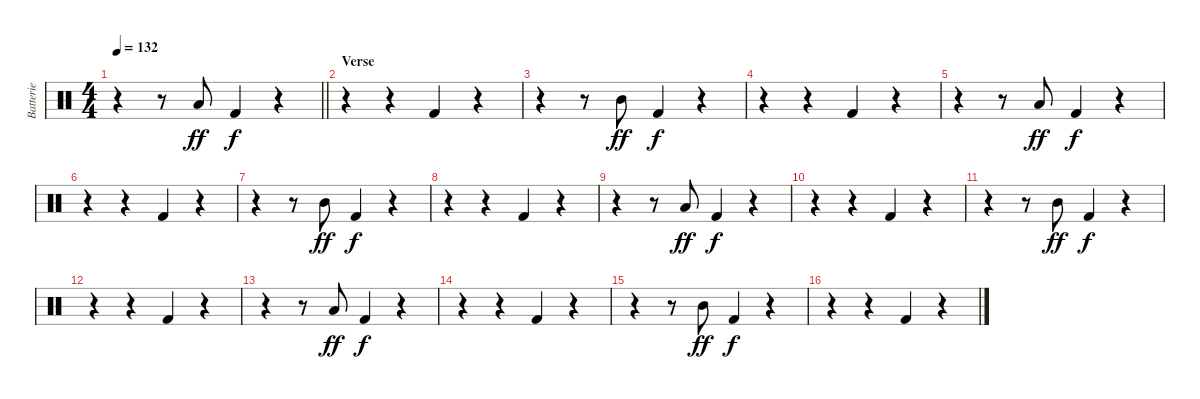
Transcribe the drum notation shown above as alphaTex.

\track ("Batterie" "Batterie") {instrument percussion}
\staff {score}
\articulation defaults
\ts (4 4)
\tempo 132
\clef neutral
\barLineRight lightlight
\ks c
r.4{dy f} r.8 "Low Floor Tom (hit)".8{dy ff} "Kick (hit) 2".4{dy f} r.4 |
\section ("" "Verse")
r.4 r.4 "Kick (hit) 2".4 r.4 |
r.4 r.8 "Mid Tom (hit)".8{dy ff} "Kick (hit) 2".4{dy f} r.4 |
r.4 r.4 "Kick (hit) 2".4 r.4 |
r.4 r.8 "Low Floor Tom (hit)".8{dy ff} "Kick (hit) 2".4{dy f} r.4 |
r.4 r.4 "Kick (hit) 2".4 r.4 |
r.4 r.8 "Mid Tom (hit)".8{dy ff} "Kick (hit) 2".4{dy f} r.4 |
r.4 r.4 "Kick (hit) 2".4 r.4 |
r.4 r.8 "Low Floor Tom (hit)".8{dy ff} "Kick (hit) 2".4{dy f} r.4 |
r.4 r.4 "Kick (hit) 2".4 r.4 |
r.4 r.8 "Mid Tom (hit)".8{dy ff} "Kick (hit) 2".4{dy f} r.4 |
r.4 r.4 "Kick (hit) 2".4 r.4 |
r.4 r.8 "Low Floor Tom (hit)".8{dy ff} "Kick (hit) 2".4{dy f} r.4 |
r.4 r.4 "Kick (hit) 2".4 r.4 |
r.4 r.8 "Mid Tom (hit)".8{dy ff} "Kick (hit) 2".4{dy f} r.4 |
r.4 r.4 "Kick (hit) 2".4 r.4
